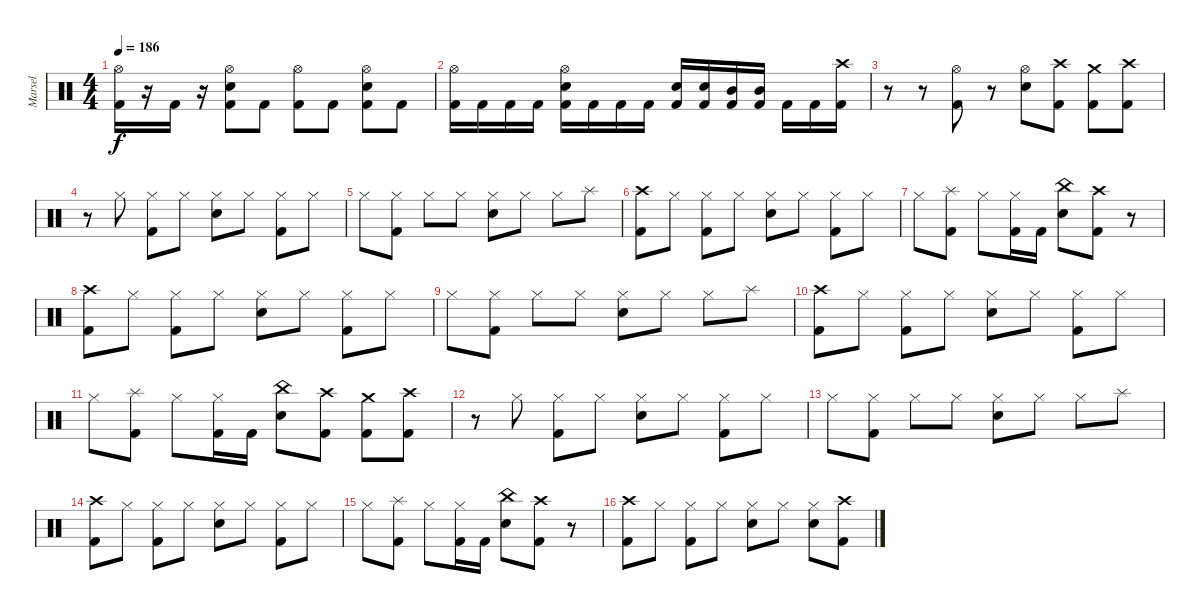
\track ("Marsel" "Marsel") {mute instrument percussion}
\staff {score}
\articulation defaults
\ts (4 4)
\tempo 186
\clef neutral
\ks c
("Hi-Hat (open)" "Kick (hit) 2").16{dy f} r.16 "Kick (hit) 2".16 r.16 ("Hi-Hat (open)" "Snare (hit) 2" "Kick (hit) 2").8 "Kick (hit) 2".8 ("Hi-Hat (open)" "Kick (hit) 2").8 "Kick (hit) 2".8 ("Hi-Hat (open)" "Snare (hit) 2" "Kick (hit) 2").8 "Kick (hit) 2".8 |
("Hi-Hat (open)" "Kick (hit) 2").16 "Kick (hit) 2".16 "Kick (hit) 2".16 "Kick (hit) 2".16 ("Hi-Hat (open)" "Snare (hit) 2" "Kick (hit) 2").16 "Kick (hit) 2".16 "Kick (hit) 2".16 "Kick (hit) 2".16 ("Snare (hit) 2" "Kick (hit) 2").16 ("Snare (hit) 2" "Kick (hit) 2").16 ("Mid Tom (hit)" "Kick (hit) 2").16 ("Mid Tom (hit)" "Kick (hit) 2").16 "Kick (hit) 2".16 "Kick (hit) 2".16 ("Crash high (hit)" "Kick (hit) 2").16 |
r.8 r.8 ("Hi-Hat (open)" "Kick (hit) 2").8 r.8 ("Hi-Hat (open)" "Snare (hit) 2").8 ("Crash high (hit)" "Kick (hit) 2").8 ("Crash medium (hit)" "Kick (hit) 2").8 ("Crash high (hit)" "Kick (hit) 2").8 |
r.8 "Hi-Hat (closed)".8 ("Hi-Hat (closed)" "Kick (hit) 2").8 "Hi-Hat (closed)".8 ("Hi-Hat (closed)" "Snare (hit) 2").8 "Hi-Hat (closed)".8 ("Hi-Hat (closed)" "Kick (hit) 2").8 "Hi-Hat (closed)".8 |
"Hi-Hat (closed)".8 ("Hi-Hat (closed)" "Kick (hit) 2").8 "Hi-Hat (closed)".8 "Hi-Hat (closed)".8 ("Hi-Hat (closed)" "Snare (hit) 2").8 "Hi-Hat (closed)".8 "Hi-Hat (closed)".8 "Splash (hit)".8 |
("Crash high (hit)" "Kick (hit) 2").8 "Hi-Hat (closed)".8 ("Hi-Hat (closed)" "Kick (hit) 2").8 "Hi-Hat (closed)".8 ("Hi-Hat (closed)" "Snare (hit) 2").8 "Hi-Hat (closed)".8 ("Hi-Hat (closed)" "Kick (hit) 2").8 "Hi-Hat (closed)".8 |
"Hi-Hat (closed)".8 ("Splash (hit)" "Kick (hit) 2").8 "Hi-Hat (closed)".8 ("Hi-Hat (closed)" "Kick (hit) 2").16 "Kick (hit) 2".16 ("China (hit)" "Snare (hit) 2").8 ("Crash high (hit)" "Kick (hit) 2").8 r.8 |
("Crash high (hit)" "Kick (hit) 2").8 "Hi-Hat (closed)".8 ("Hi-Hat (closed)" "Kick (hit) 2").8 "Hi-Hat (closed)".8 ("Hi-Hat (closed)" "Snare (hit) 2").8 "Hi-Hat (closed)".8 ("Hi-Hat (closed)" "Kick (hit) 2").8 "Hi-Hat (closed)".8 |
"Hi-Hat (closed)".8 ("Hi-Hat (closed)" "Kick (hit) 2").8 "Hi-Hat (closed)".8 "Hi-Hat (closed)".8 ("Hi-Hat (closed)" "Snare (hit) 2").8 "Hi-Hat (closed)".8 "Hi-Hat (closed)".8 "Splash (hit)".8 |
("Crash high (hit)" "Kick (hit) 2").8 "Hi-Hat (closed)".8 ("Hi-Hat (closed)" "Kick (hit) 2").8 "Hi-Hat (closed)".8 ("Hi-Hat (closed)" "Snare (hit) 2").8 "Hi-Hat (closed)".8 ("Hi-Hat (closed)" "Kick (hit) 2").8 "Hi-Hat (closed)".8 |
"Hi-Hat (closed)".8 ("Splash (hit)" "Kick (hit) 2").8 "Hi-Hat (closed)".8 ("Hi-Hat (closed)" "Kick (hit) 2").16 "Kick (hit) 2".16 ("China (hit)" "Snare (hit) 2").8 ("Crash high (hit)" "Kick (hit) 2").8 ("Crash medium (hit)" "Kick (hit) 2").8 ("Crash high (hit)" "Kick (hit) 2").8 |
r.8 "Hi-Hat (closed)".8 ("Hi-Hat (closed)" "Kick (hit) 2").8 "Hi-Hat (closed)".8 ("Hi-Hat (closed)" "Snare (hit) 2").8 "Hi-Hat (closed)".8 ("Hi-Hat (closed)" "Kick (hit) 2").8 "Hi-Hat (closed)".8 |
"Hi-Hat (closed)".8 ("Hi-Hat (closed)" "Kick (hit) 2").8 "Hi-Hat (closed)".8 "Hi-Hat (closed)".8 ("Hi-Hat (closed)" "Snare (hit) 2").8 "Hi-Hat (closed)".8 "Hi-Hat (closed)".8 "Splash (hit)".8 |
("Crash high (hit)" "Kick (hit) 2").8 "Hi-Hat (closed)".8 ("Hi-Hat (closed)" "Kick (hit) 2").8 "Hi-Hat (closed)".8 ("Hi-Hat (closed)" "Snare (hit) 2").8 "Hi-Hat (closed)".8 ("Hi-Hat (closed)" "Kick (hit) 2").8 "Hi-Hat (closed)".8 |
"Hi-Hat (closed)".8 ("Splash (hit)" "Kick (hit) 2").8 "Hi-Hat (closed)".8 ("Hi-Hat (closed)" "Kick (hit) 2").16 "Kick (hit) 2".16 ("China (hit)" "Snare (hit) 2").8 ("Crash high (hit)" "Kick (hit) 2").8 r.8 |
("Crash high (hit)" "Kick (hit) 2").8 "Hi-Hat (closed)".8 ("Hi-Hat (closed)" "Kick (hit) 2").8 "Hi-Hat (closed)".8 ("Hi-Hat (closed)" "Snare (hit) 2").8 "Hi-Hat (closed)".8 ("Hi-Hat (closed)" "Snare (hit) 2").8 ("Crash high (hit)" "Kick (hit) 2").8
